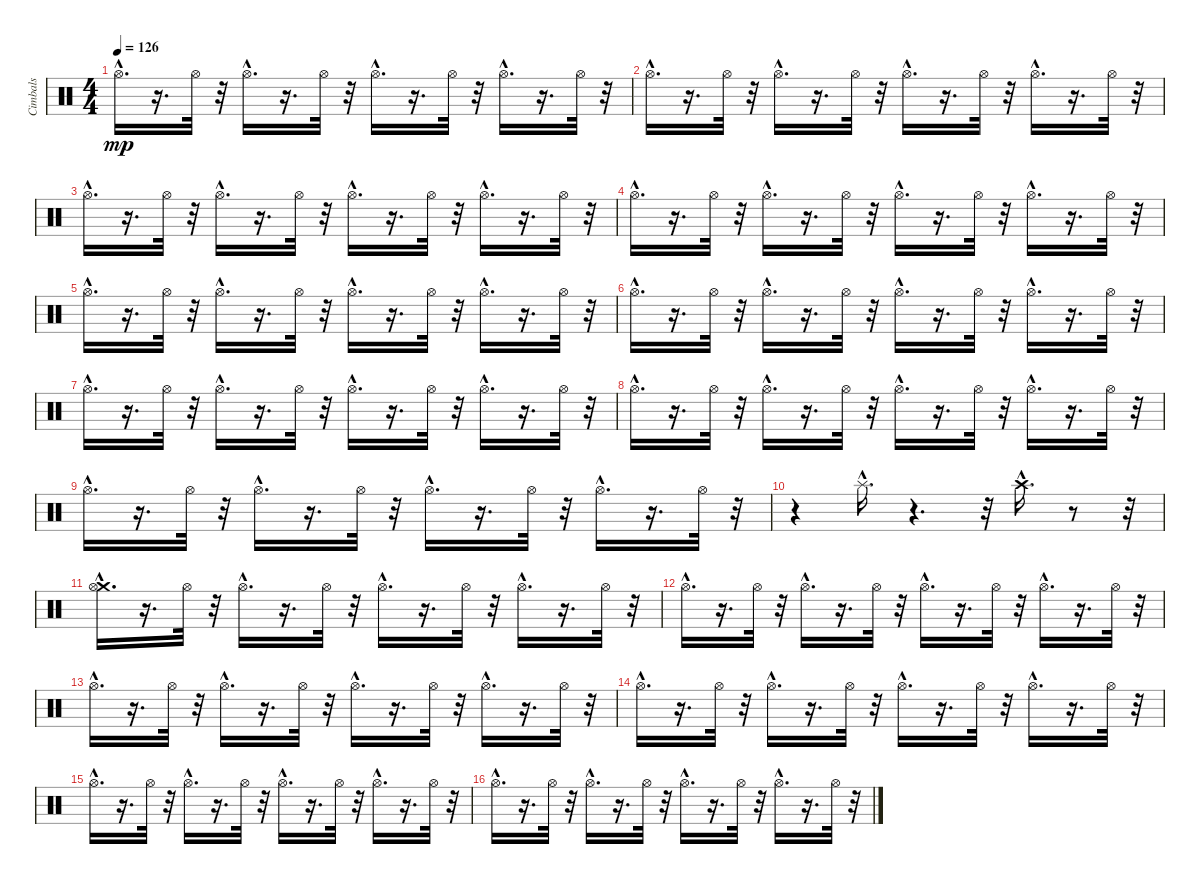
\track ("Cimbals" "Cimbals") {instrument percussion}
\staff {score}
\articulation defaults
\ts (4 4)
\tempo 126
\clef neutral
\ks c "Hi-Hat (open)"{hac}.16{d dy mp}
r.16{d} "Hi-Hat (open)".32 r.32 "Hi-Hat (open)"{hac}.16{d} r.16{d} "Hi-Hat (open)".32 r.32 "Hi-Hat (open)"{hac}.16{d} r.16{d} "Hi-Hat (open)".32 r.32 "Hi-Hat (open)"{hac}.16{d} r.16{d} "Hi-Hat (open)".32 r.32 |
"Hi-Hat (open)"{hac}.16{d} r.16{d} "Hi-Hat (open)".32 r.32 "Hi-Hat (open)"{hac}.16{d} r.16{d} "Hi-Hat (open)".32 r.32 "Hi-Hat (open)"{hac}.16{d} r.16{d} "Hi-Hat (open)".32 r.32 "Hi-Hat (open)"{hac}.16{d} r.16{d} "Hi-Hat (open)".32 r.32 |
"Hi-Hat (open)"{hac}.16{d} r.16{d} "Hi-Hat (open)".32 r.32 "Hi-Hat (open)"{hac}.16{d} r.16{d} "Hi-Hat (open)".32 r.32 "Hi-Hat (open)"{hac}.16{d} r.16{d} "Hi-Hat (open)".32 r.32 "Hi-Hat (open)"{hac}.16{d} r.16{d} "Hi-Hat (open)".32 r.32 |
"Hi-Hat (open)"{hac}.16{d} r.16{d} "Hi-Hat (open)".32 r.32 "Hi-Hat (open)"{hac}.16{d} r.16{d} "Hi-Hat (open)".32 r.32 "Hi-Hat (open)"{hac}.16{d} r.16{d} "Hi-Hat (open)".32 r.32 "Hi-Hat (open)"{hac}.16{d} r.16{d} "Hi-Hat (open)".32 r.32 |
"Hi-Hat (open)"{hac}.16{d} r.16{d} "Hi-Hat (open)".32 r.32 "Hi-Hat (open)"{hac}.16{d} r.16{d} "Hi-Hat (open)".32 r.32 "Hi-Hat (open)"{hac}.16{d} r.16{d} "Hi-Hat (open)".32 r.32 "Hi-Hat (open)"{hac}.16{d} r.16{d} "Hi-Hat (open)".32 r.32 |
"Hi-Hat (open)"{hac}.16{d} r.16{d} "Hi-Hat (open)".32 r.32 "Hi-Hat (open)"{hac}.16{d} r.16{d} "Hi-Hat (open)".32 r.32 "Hi-Hat (open)"{hac}.16{d} r.16{d} "Hi-Hat (open)".32 r.32 "Hi-Hat (open)"{hac}.16{d} r.16{d} "Hi-Hat (open)".32 r.32 |
"Hi-Hat (open)"{hac}.16{d} r.16{d} "Hi-Hat (open)".32 r.32 "Hi-Hat (open)"{hac}.16{d} r.16{d} "Hi-Hat (open)".32 r.32 "Hi-Hat (open)"{hac}.16{d} r.16{d} "Hi-Hat (open)".32 r.32 "Hi-Hat (open)"{hac}.16{d} r.16{d} "Hi-Hat (open)".32 r.32 |
"Hi-Hat (open)"{hac}.16{d} r.16{d} "Hi-Hat (open)".32 r.32 "Hi-Hat (open)"{hac}.16{d} r.16{d} "Hi-Hat (open)".32 r.32 "Hi-Hat (open)"{hac}.16{d} r.16{d} "Hi-Hat (open)".32 r.32 "Hi-Hat (open)"{hac}.16{d} r.16{d} "Hi-Hat (open)".32 r.32 |
"Hi-Hat (open)"{hac}.16{d} r.16{d} "Hi-Hat (open)".32 r.32 "Hi-Hat (open)"{hac}.16{d} r.16{d} "Hi-Hat (open)".32 r.32 "Hi-Hat (open)"{hac}.16{d} r.16{d} "Hi-Hat (open)".32 r.32 "Hi-Hat (open)"{hac}.16{d} r.16{d} "Hi-Hat (open)".32 r.32 |
r.4 "Splash (hit)"{hac}.16{d} r.4{d} r.32 "Crash high (hit)"{hac}.16{d} r.8 r.32 |
("Crash medium (hit)"{hac} "Hi-Hat (open)"{hac}).16{d} r.16{d} "Hi-Hat (open)".32 r.32 "Hi-Hat (open)"{hac}.16{d} r.16{d} "Hi-Hat (open)".32 r.32 "Hi-Hat (open)"{hac}.16{d} r.16{d} "Hi-Hat (open)".32 r.32 "Hi-Hat (open)"{hac}.16{d} r.16{d} "Hi-Hat (open)".32 r.32 |
"Hi-Hat (open)"{hac}.16{d} r.16{d} "Hi-Hat (open)".32 r.32 "Hi-Hat (open)"{hac}.16{d} r.16{d} "Hi-Hat (open)".32 r.32 "Hi-Hat (open)"{hac}.16{d} r.16{d} "Hi-Hat (open)".32 r.32 "Hi-Hat (open)"{hac}.16{d} r.16{d} "Hi-Hat (open)".32 r.32 |
"Hi-Hat (open)"{hac}.16{d} r.16{d} "Hi-Hat (open)".32 r.32 "Hi-Hat (open)"{hac}.16{d} r.16{d} "Hi-Hat (open)".32 r.32 "Hi-Hat (open)"{hac}.16{d} r.16{d} "Hi-Hat (open)".32 r.32 "Hi-Hat (open)"{hac}.16{d} r.16{d} "Hi-Hat (open)".32 r.32 |
"Hi-Hat (open)"{hac}.16{d} r.16{d} "Hi-Hat (open)".32 r.32 "Hi-Hat (open)"{hac}.16{d} r.16{d} "Hi-Hat (open)".32 r.32 "Hi-Hat (open)"{hac}.16{d} r.16{d} "Hi-Hat (open)".32 r.32 "Hi-Hat (open)"{hac}.16{d} r.16{d} "Hi-Hat (open)".32 r.32 |
"Hi-Hat (open)"{hac}.16{d} r.16{d} "Hi-Hat (open)".32 r.32 "Hi-Hat (open)"{hac}.16{d} r.16{d} "Hi-Hat (open)".32 r.32 "Hi-Hat (open)"{hac}.16{d} r.16{d} "Hi-Hat (open)".32 r.32 "Hi-Hat (open)"{hac}.16{d} r.16{d} "Hi-Hat (open)".32 r.32 |
"Hi-Hat (open)"{hac}.16{d} r.16{d} "Hi-Hat (open)".32 r.32 "Hi-Hat (open)"{hac}.16{d} r.16{d} "Hi-Hat (open)".32 r.32 "Hi-Hat (open)"{hac}.16{d} r.16{d} "Hi-Hat (open)".32 r.32 "Hi-Hat (open)"{hac}.16{d} r.16{d} "Hi-Hat (open)".32 r.32
